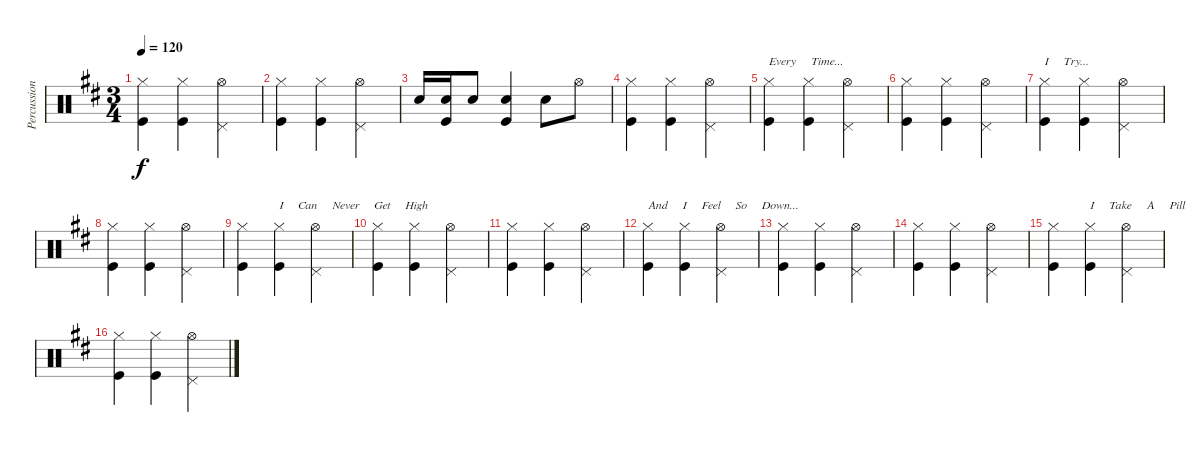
\track ("Percussion" "Percussion") {instrument percussion}
\staff {score}
\articulation defaults
\ts (3 4)
\tempo 120
\clef neutral
\ks bminor
("Hi-Hat (closed)" "Kick (hit)").4{dy f} ("Hi-Hat (closed)" "Kick (hit)").4 ("Pedal Hi-Hat (hit)" "Hi-Hat (open)").4 |
("Hi-Hat (closed)" "Kick (hit)").4 ("Hi-Hat (closed)" "Kick (hit)").4 ("Pedal Hi-Hat (hit)" "Hi-Hat (open)").4 |
"Snare (hit) 2".16 ("Snare (hit) 2" "Kick (hit)").16 "Snare (hit) 2".8 ("Snare (hit) 2" "Kick (hit)").4 "Snare (hit) 2".8 "Hi-Hat (open)".8 |
("Hi-Hat (closed)" "Kick (hit)").4 ("Hi-Hat (closed)" "Kick (hit)").4 ("Pedal Hi-Hat (hit)" "Hi-Hat (open)").4 |
("Hi-Hat (closed)" "Kick (hit)").4{txt "Every     Time... "} ("Hi-Hat (closed)" "Kick (hit)").4 ("Pedal Hi-Hat (hit)" "Hi-Hat (open)").4 |
("Hi-Hat (closed)" "Kick (hit)").4 ("Hi-Hat (closed)" "Kick (hit)").4 ("Pedal Hi-Hat (hit)" "Hi-Hat (open)").4 |
("Hi-Hat (closed)" "Kick (hit)").4{txt "I     Try..."} ("Hi-Hat (closed)" "Kick (hit)").4 ("Pedal Hi-Hat (hit)" "Hi-Hat (open)").4 |
("Hi-Hat (closed)" "Kick (hit)").4 ("Hi-Hat (closed)" "Kick (hit)").4 ("Pedal Hi-Hat (hit)" "Hi-Hat (open)").4 |
("Hi-Hat (closed)" "Kick (hit)").4 ("Hi-Hat (closed)" "Kick (hit)").4{txt "I     Can     Never     Get     High"} ("Pedal Hi-Hat (hit)" "Hi-Hat (open)").4 |
("Hi-Hat (closed)" "Kick (hit)").4 ("Hi-Hat (closed)" "Kick (hit)").4 ("Pedal Hi-Hat (hit)" "Hi-Hat (open)").4 |
("Hi-Hat (closed)" "Kick (hit)").4 ("Hi-Hat (closed)" "Kick (hit)").4 ("Pedal Hi-Hat (hit)" "Hi-Hat (open)").4 |
("Hi-Hat (closed)" "Kick (hit)").4{txt "And     I     Feel     So     Down..."} ("Hi-Hat (closed)" "Kick (hit)").4 ("Pedal Hi-Hat (hit)" "Hi-Hat (open)").4 |
("Hi-Hat (closed)" "Kick (hit)").4 ("Hi-Hat (closed)" "Kick (hit)").4 ("Pedal Hi-Hat (hit)" "Hi-Hat (open)").4 |
("Hi-Hat (closed)" "Kick (hit)").4 ("Hi-Hat (closed)" "Kick (hit)").4 ("Pedal Hi-Hat (hit)" "Hi-Hat (open)").4 |
("Hi-Hat (closed)" "Kick (hit)").4 ("Hi-Hat (closed)" "Kick (hit)").4{txt "I     Take     A     Pill     And     Chill..."} ("Pedal Hi-Hat (hit)" "Hi-Hat (open)").4 |
("Hi-Hat (closed)" "Kick (hit)").4 ("Hi-Hat (closed)" "Kick (hit)").4 ("Pedal Hi-Hat (hit)" "Hi-Hat (open)").4
